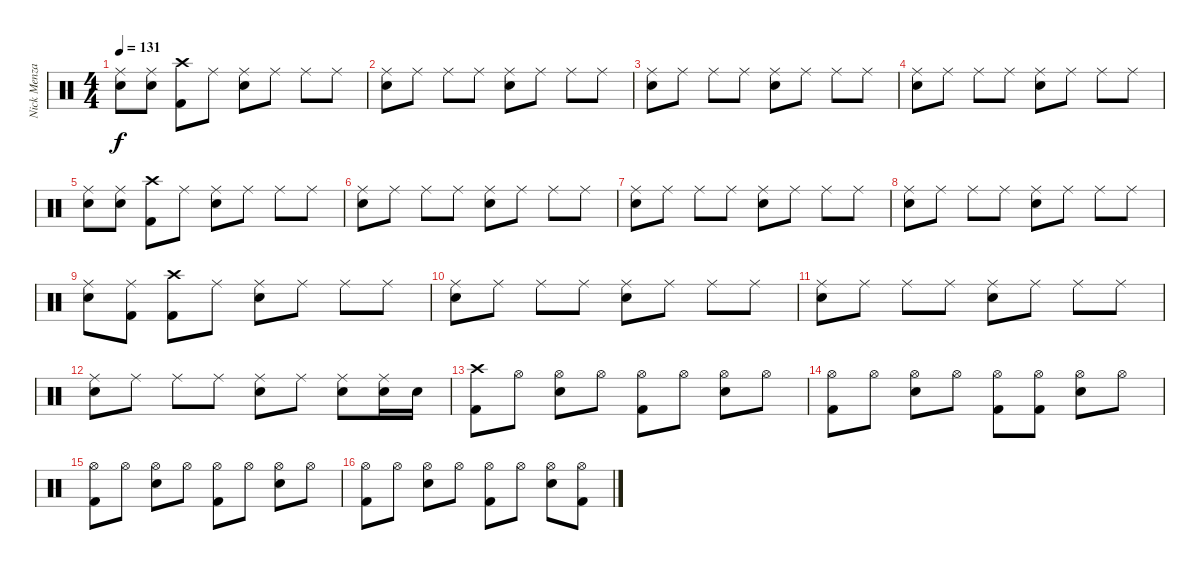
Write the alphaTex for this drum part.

\track ("Nick Menza" "Nick Menza") {instrument percussion}
\staff {score}
\articulation defaults
\ts (4 4)
\tempo 131
\clef neutral
\ks c
("Ride (middle)" "Snare (hit) 2").8{dy f} ("Ride (middle)" "Snare (hit) 2").8 ("Crash high (hit)" "Kick (hit) 2").8 "Ride (middle)".8 ("Ride (middle)" "Snare (hit) 2").8 "Ride (middle)".8 "Ride (middle)".8 "Ride (middle)".8 |
("Ride (middle)" "Snare (hit) 2").8 "Ride (middle)".8 "Ride (middle)".8 "Ride (middle)".8 ("Ride (middle)" "Snare (hit) 2").8 "Ride (middle)".8 "Ride (middle)".8 "Ride (middle)".8 |
("Ride (middle)" "Snare (hit) 2").8 "Ride (middle)".8 "Ride (middle)".8 "Ride (middle)".8 ("Ride (middle)" "Snare (hit) 2").8 "Ride (middle)".8 "Ride (middle)".8 "Ride (middle)".8 |
("Ride (middle)" "Snare (hit) 2").8 "Ride (middle)".8 "Ride (middle)".8 "Ride (middle)".8 ("Ride (middle)" "Snare (hit) 2").8 "Ride (middle)".8 "Ride (middle)".8 "Ride (middle)".8 |
("Ride (middle)" "Snare (hit) 2").8 ("Ride (middle)" "Snare (hit) 2").8 ("Crash high (hit)" "Kick (hit) 2").8 "Ride (middle)".8 ("Ride (middle)" "Snare (hit) 2").8 "Ride (middle)".8 "Ride (middle)".8 "Ride (middle)".8 |
("Ride (middle)" "Snare (hit) 2").8 "Ride (middle)".8 "Ride (middle)".8 "Ride (middle)".8 ("Ride (middle)" "Snare (hit) 2").8 "Ride (middle)".8 "Ride (middle)".8 "Ride (middle)".8 |
("Ride (middle)" "Snare (hit) 2").8 "Ride (middle)".8 "Ride (middle)".8 "Ride (middle)".8 ("Ride (middle)" "Snare (hit) 2").8 "Ride (middle)".8 "Ride (middle)".8 "Ride (middle)".8 |
("Ride (middle)" "Snare (hit) 2").8 "Ride (middle)".8 "Ride (middle)".8 "Ride (middle)".8 ("Ride (middle)" "Snare (hit) 2").8 "Ride (middle)".8 "Ride (middle)".8 "Ride (middle)".8 |
("Ride (middle)" "Snare (hit) 2").8 ("Ride (middle)" "Kick (hit) 2").8 ("Crash high (hit)" "Kick (hit) 2").8 "Ride (middle)".8 ("Ride (middle)" "Snare (hit) 2").8 "Ride (middle)".8 "Ride (middle)".8 "Ride (middle)".8 |
("Ride (middle)" "Snare (hit) 2").8 "Ride (middle)".8 "Ride (middle)".8 "Ride (middle)".8 ("Ride (middle)" "Snare (hit) 2").8 "Ride (middle)".8 "Ride (middle)".8 "Ride (middle)".8 |
("Ride (middle)" "Snare (hit) 2").8 "Ride (middle)".8 "Ride (middle)".8 "Ride (middle)".8 ("Ride (middle)" "Snare (hit) 2").8 "Ride (middle)".8 "Ride (middle)".8 "Ride (middle)".8 |
("Ride (middle)" "Snare (hit) 2").8 "Ride (middle)".8 "Ride (middle)".8 "Ride (middle)".8 ("Ride (middle)" "Snare (hit) 2").8 "Ride (middle)".8 ("Ride (middle)" "Snare (hit) 2").8 ("Ride (middle)" "Snare (hit) 2").16 "Snare (hit) 2".16 |
("Crash high (hit)" "Kick (hit) 2").8 "Hi-Hat (open)".8 ("Hi-Hat (open)" "Snare (hit) 2").8 "Hi-Hat (open)".8 ("Hi-Hat (open)" "Kick (hit) 2").8 "Hi-Hat (open)".8 ("Hi-Hat (open)" "Snare (hit) 2").8 "Hi-Hat (open)".8 |
("Hi-Hat (open)" "Kick (hit) 2").8 "Hi-Hat (open)".8 ("Hi-Hat (open)" "Snare (hit) 2").8 "Hi-Hat (open)".8 ("Hi-Hat (open)" "Kick (hit) 2").8 ("Hi-Hat (open)" "Kick (hit) 2").8 ("Hi-Hat (open)" "Snare (hit) 2").8 "Hi-Hat (open)".8 |
("Hi-Hat (open)" "Kick (hit) 2").8 "Hi-Hat (open)".8 ("Hi-Hat (open)" "Snare (hit) 2").8 "Hi-Hat (open)".8 ("Hi-Hat (open)" "Kick (hit) 2").8 "Hi-Hat (open)".8 ("Hi-Hat (open)" "Snare (hit) 2").8 "Hi-Hat (open)".8 |
("Hi-Hat (open)" "Kick (hit) 2").8 "Hi-Hat (open)".8 ("Hi-Hat (open)" "Snare (hit) 2").8 "Hi-Hat (open)".8 ("Hi-Hat (open)" "Kick (hit) 2").8 "Hi-Hat (open)".8 ("Hi-Hat (open)" "Snare (hit) 2").8 ("Hi-Hat (open)" "Kick (hit) 2").8
